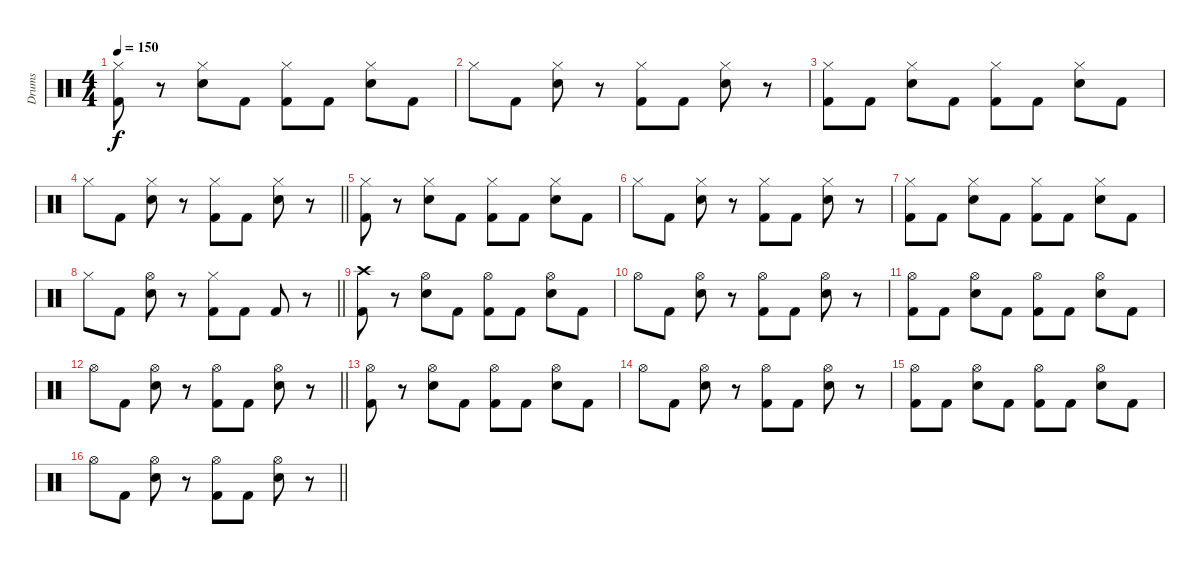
\track ("Drums" "Drums") {instrument percussion}
\staff {score}
\articulation defaults
\ts (4 4)
\tempo 150
\clef neutral
\ks c
("Hi-Hat (closed)" "Kick (hit) 2").8{dy f} r.8 ("Hi-Hat (closed)" "Snare (hit) 2").8 "Kick (hit) 2".8 ("Hi-Hat (closed)" "Kick (hit) 2").8 "Kick (hit) 2".8 ("Hi-Hat (closed)" "Snare (hit) 2").8 "Kick (hit) 2".8 |
"Hi-Hat (closed)".8 "Kick (hit) 2".8 ("Hi-Hat (closed)" "Snare (hit) 2").8 r.8 ("Hi-Hat (closed)" "Kick (hit) 2").8 "Kick (hit) 2".8 ("Hi-Hat (closed)" "Snare (hit) 2").8 r.8 |
("Hi-Hat (closed)" "Kick (hit) 2").8 "Kick (hit) 2".8 ("Hi-Hat (closed)" "Snare (hit) 2").8 "Kick (hit) 2".8 ("Hi-Hat (closed)" "Kick (hit) 2").8 "Kick (hit) 2".8 ("Hi-Hat (closed)" "Snare (hit) 2").8 "Kick (hit) 2".8 |
\barLineRight lightlight "Hi-Hat (closed)".8 "Kick (hit) 2".8
("Hi-Hat (closed)" "Snare (hit) 2").8 r.8 ("Hi-Hat (closed)" "Kick (hit) 2").8 "Kick (hit) 2".8 ("Hi-Hat (closed)" "Snare (hit) 2").8 r.8 |
("Hi-Hat (closed)" "Kick (hit) 2").8 r.8 ("Hi-Hat (closed)" "Snare (hit) 2").8 "Kick (hit) 2".8 ("Hi-Hat (closed)" "Kick (hit) 2").8 "Kick (hit) 2".8 ("Hi-Hat (closed)" "Snare (hit) 2").8 "Kick (hit) 2".8 |
"Hi-Hat (closed)".8 "Kick (hit) 2".8 ("Hi-Hat (closed)" "Snare (hit) 2").8 r.8 ("Hi-Hat (closed)" "Kick (hit) 2").8 "Kick (hit) 2".8 ("Hi-Hat (closed)" "Snare (hit) 2").8 r.8 |
("Hi-Hat (closed)" "Kick (hit) 2").8 "Kick (hit) 2".8 ("Hi-Hat (closed)" "Snare (hit) 2").8 "Kick (hit) 2".8 ("Hi-Hat (closed)" "Kick (hit) 2").8 "Kick (hit) 2".8 ("Hi-Hat (closed)" "Snare (hit) 2").8 "Kick (hit) 2".8 |
\barLineRight lightlight "Hi-Hat (closed)".8 "Kick (hit) 2".8
("Hi-Hat (open)" "Snare (hit) 2").8 r.8 ("Hi-Hat (closed)" "Kick (hit) 2").8 "Kick (hit) 2".8 "Kick (hit) 2".8 r.8 |
("Crash high (hit)" "Kick (hit) 2").8 r.8 ("Hi-Hat (open)" "Snare (hit) 2").8 "Kick (hit) 2".8 ("Hi-Hat (open)" "Kick (hit) 2").8 "Kick (hit) 2".8 ("Hi-Hat (open)" "Snare (hit) 2").8 "Kick (hit) 2".8 |
"Hi-Hat (open)".8 "Kick (hit) 2".8 ("Hi-Hat (open)" "Snare (hit) 2").8 r.8 ("Hi-Hat (open)" "Kick (hit) 2").8 "Kick (hit) 2".8 ("Hi-Hat (open)" "Snare (hit) 2").8 r.8 |
("Hi-Hat (open)" "Kick (hit) 2").8 "Kick (hit) 2".8 ("Hi-Hat (open)" "Snare (hit) 2").8 "Kick (hit) 2".8 ("Hi-Hat (open)" "Kick (hit) 2").8 "Kick (hit) 2".8 ("Hi-Hat (open)" "Snare (hit) 2").8 "Kick (hit) 2".8 |
\barLineRight lightlight "Hi-Hat (open)".8 "Kick (hit) 2".8
("Hi-Hat (open)" "Snare (hit) 2").8 r.8 ("Hi-Hat (open)" "Kick (hit) 2").8 "Kick (hit) 2".8 ("Hi-Hat (open)" "Snare (hit) 2").8 r.8 |
("Hi-Hat (open)" "Kick (hit) 2").8 r.8 ("Hi-Hat (open)" "Snare (hit) 2").8 "Kick (hit) 2".8 ("Hi-Hat (open)" "Kick (hit) 2").8 "Kick (hit) 2".8 ("Hi-Hat (open)" "Snare (hit) 2").8 "Kick (hit) 2".8 |
"Hi-Hat (open)".8 "Kick (hit) 2".8 ("Hi-Hat (open)" "Snare (hit) 2").8 r.8 ("Hi-Hat (open)" "Kick (hit) 2").8 "Kick (hit) 2".8 ("Hi-Hat (open)" "Snare (hit) 2").8 r.8 |
("Hi-Hat (open)" "Kick (hit) 2").8 "Kick (hit) 2".8 ("Hi-Hat (open)" "Snare (hit) 2").8 "Kick (hit) 2".8 ("Hi-Hat (open)" "Kick (hit) 2").8 "Kick (hit) 2".8 ("Hi-Hat (open)" "Snare (hit) 2").8 "Kick (hit) 2".8 |
\barLineRight lightlight "Hi-Hat (open)".8 "Kick (hit) 2".8
("Hi-Hat (open)" "Snare (hit) 2").8 r.8 ("Hi-Hat (open)" "Kick (hit) 2").8 "Kick (hit) 2".8 ("Hi-Hat (open)" "Snare (hit) 2").8 r.8
